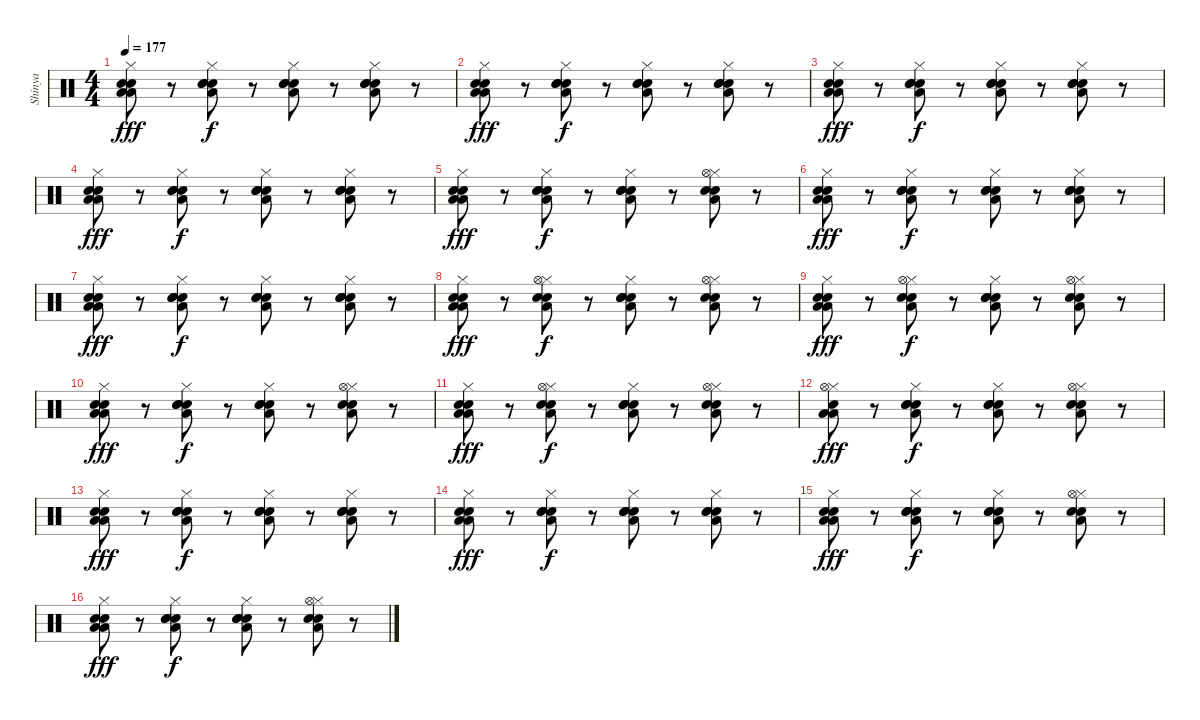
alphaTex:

\track ("Shinya " "Shinya ") {instrument percussion}
\staff {score}
\articulation defaults
\ts (4 4)
\tempo 177
\clef neutral
\ks c
("Hi-Hat (closed)" "Electric Snare (hit)" "Low Tom (hit)" "Electric Snare (hit)" "Low Tom (hit)").8{dy fff} r.8 ("Hi-Hat (closed)" "Electric Snare (hit)" "Low Tom (hit)" "Electric Snare (hit)" "Snare (hit) 2").8{dy f} r.8 ("Hi-Hat (closed)" "Electric Snare (hit)" "Electric Snare (hit)" "Snare (hit) 2" "Low Tom (hit)").8 r.8 ("Hi-Hat (closed)" "Electric Snare (hit)" "Electric Snare (hit)" "Electric Snare (hit)" "Low Tom (hit)").8 r.8 |
("Hi-Hat (closed)" "Electric Snare (hit)" "Low Tom (hit)" "Electric Snare (hit)" "Low Tom (hit)").8{dy fff} r.8 ("Hi-Hat (closed)" "Electric Snare (hit)" "Low Tom (hit)" "Electric Snare (hit)" "Snare (hit) 2").8{dy f} r.8 ("Hi-Hat (closed)" "Electric Snare (hit)" "Electric Snare (hit)" "Snare (hit) 2" "Low Tom (hit)").8 r.8 ("Hi-Hat (closed)" "Electric Snare (hit)" "Electric Snare (hit)" "Low Tom (hit)" "Electric Snare (hit)").8 r.8 |
("Hi-Hat (closed)" "Electric Snare (hit)" "Low Tom (hit)" "Electric Snare (hit)" "Low Tom (hit)").8{dy fff} r.8 ("Hi-Hat (closed)" "Electric Snare (hit)" "Low Tom (hit)" "Electric Snare (hit)" "Snare (hit) 2").8{dy f} r.8 ("Hi-Hat (closed)" "Electric Snare (hit)" "Electric Snare (hit)" "Snare (hit) 2" "Low Tom (hit)").8 r.8 ("Hi-Hat (closed)" "Electric Snare (hit)" "Electric Snare (hit)" "Electric Snare (hit)" "Low Tom (hit)").8 r.8 |
("Hi-Hat (closed)" "Electric Snare (hit)" "Low Tom (hit)" "Electric Snare (hit)" "Low Tom (hit)").8{dy fff} r.8 ("Hi-Hat (closed)" "Electric Snare (hit)" "Low Tom (hit)" "Electric Snare (hit)" "Snare (hit) 2").8{dy f} r.8 ("Hi-Hat (closed)" "Electric Snare (hit)" "Electric Snare (hit)" "Snare (hit) 2" "Low Tom (hit)").8 r.8 ("Hi-Hat (closed)" "Electric Snare (hit)" "Electric Snare (hit)" "Low Tom (hit)" "Electric Snare (hit)").8 r.8 |
("Hi-Hat (closed)" "Electric Snare (hit)" "Low Tom (hit)" "Electric Snare (hit)" "Low Tom (hit)").8{dy fff} r.8 ("Hi-Hat (closed)" "Electric Snare (hit)" "Low Tom (hit)" "Electric Snare (hit)" "Snare (hit) 2").8{dy f} r.8 ("Hi-Hat (closed)" "Electric Snare (hit)" "Electric Snare (hit)" "Snare (hit) 2" "Low Tom (hit)").8 r.8 ("Hi-Hat (closed)" "Hi-Hat (open)" "Electric Snare (hit)" "Electric Snare (hit)" "Low Tom (hit)").8 r.8 |
("Hi-Hat (closed)" "Electric Snare (hit)" "Low Tom (hit)" "Electric Snare (hit)" "Low Tom (hit)").8{dy fff} r.8 ("Hi-Hat (closed)" "Electric Snare (hit)" "Low Tom (hit)" "Electric Snare (hit)" "Snare (hit) 2").8{dy f} r.8 ("Hi-Hat (closed)" "Electric Snare (hit)" "Electric Snare (hit)" "Snare (hit) 2" "Low Tom (hit)").8 r.8 ("Hi-Hat (closed)" "Electric Snare (hit)" "Electric Snare (hit)" "Electric Snare (hit)" "Low Tom (hit)").8 r.8 |
("Hi-Hat (closed)" "Electric Snare (hit)" "Low Tom (hit)" "Electric Snare (hit)" "Low Tom (hit)").8{dy fff} r.8 ("Hi-Hat (closed)" "Electric Snare (hit)" "Low Tom (hit)" "Electric Snare (hit)" "Snare (hit) 2").8{dy f} r.8 ("Hi-Hat (closed)" "Electric Snare (hit)" "Electric Snare (hit)" "Snare (hit) 2" "Low Tom (hit)").8 r.8 ("Hi-Hat (closed)" "Electric Snare (hit)" "Electric Snare (hit)" "Low Tom (hit)" "Electric Snare (hit)").8 r.8 |
("Hi-Hat (closed)" "Electric Snare (hit)" "Low Tom (hit)" "Electric Snare (hit)" "Low Tom (hit)").8{dy fff} r.8 ("Hi-Hat (closed)" "Hi-Hat (open)" "Low Tom (hit)" "Electric Snare (hit)" "Snare (hit) 2").8{dy f} r.8 ("Hi-Hat (closed)" "Electric Snare (hit)" "Electric Snare (hit)" "Snare (hit) 2" "Low Tom (hit)").8 r.8 ("Hi-Hat (closed)" "Hi-Hat (open)" "Electric Snare (hit)" "Electric Snare (hit)" "Low Tom (hit)").8 r.8 |
("Hi-Hat (closed)" "Electric Snare (hit)" "Low Tom (hit)" "Electric Snare (hit)" "Low Tom (hit)").8{dy fff} r.8 ("Hi-Hat (closed)" "Hi-Hat (open)" "Low Tom (hit)" "Electric Snare (hit)" "Snare (hit) 2").8{dy f} r.8 ("Hi-Hat (closed)" "Electric Snare (hit)" "Electric Snare (hit)" "Snare (hit) 2" "Low Tom (hit)").8 r.8 ("Hi-Hat (closed)" "Hi-Hat (open)" "Electric Snare (hit)" "Low Tom (hit)" "Electric Snare (hit)").8 r.8 |
("Hi-Hat (closed)" "Electric Snare (hit)" "Low Tom (hit)" "Electric Snare (hit)" "Low Tom (hit)").8{dy fff} r.8 ("Hi-Hat (closed)" "Electric Snare (hit)" "Low Tom (hit)" "Electric Snare (hit)" "Snare (hit) 2").8{dy f} r.8 ("Hi-Hat (closed)" "Electric Snare (hit)" "Electric Snare (hit)" "Snare (hit) 2" "Low Tom (hit)").8 r.8 ("Hi-Hat (closed)" "Hi-Hat (open)" "Electric Snare (hit)" "Electric Snare (hit)" "Low Tom (hit)").8 r.8 |
("Hi-Hat (closed)" "Electric Snare (hit)" "Low Tom (hit)" "Electric Snare (hit)" "Low Tom (hit)").8{dy fff} r.8 ("Hi-Hat (closed)" "Hi-Hat (open)" "Low Tom (hit)" "Electric Snare (hit)" "Snare (hit) 2").8{dy f} r.8 ("Hi-Hat (closed)" "Electric Snare (hit)" "Electric Snare (hit)" "Snare (hit) 2" "Low Tom (hit)").8 r.8 ("Hi-Hat (closed)" "Hi-Hat (open)" "Electric Snare (hit)" "Electric Snare (hit)" "Low Tom (hit)").8 r.8 |
("Hi-Hat (closed)" "Hi-Hat (open)" "Low Tom (hit)" "Electric Snare (hit)" "Low Tom (hit)").8{dy fff} r.8 ("Hi-Hat (closed)" "Electric Snare (hit)" "Low Tom (hit)" "Electric Snare (hit)" "Snare (hit) 2").8{dy f} r.8 ("Hi-Hat (closed)" "Electric Snare (hit)" "Electric Snare (hit)" "Snare (hit) 2" "Low Tom (hit)").8 r.8 ("Hi-Hat (closed)" "Hi-Hat (open)" "Electric Snare (hit)" "Low Tom (hit)" "Electric Snare (hit)").8 r.8 |
("Hi-Hat (closed)" "Electric Snare (hit)" "Low Tom (hit)" "Electric Snare (hit)" "Low Tom (hit)").8{dy fff} r.8 ("Hi-Hat (closed)" "Electric Snare (hit)" "Low Tom (hit)" "Electric Snare (hit)" "Snare (hit) 2").8{dy f} r.8 ("Hi-Hat (closed)" "Electric Snare (hit)" "Electric Snare (hit)" "Snare (hit) 2" "Low Tom (hit)").8 r.8 ("Hi-Hat (closed)" "Electric Snare (hit)" "Electric Snare (hit)" "Electric Snare (hit)" "Low Tom (hit)").8 r.8 |
("Hi-Hat (closed)" "Electric Snare (hit)" "Low Tom (hit)" "Electric Snare (hit)" "Low Tom (hit)").8{dy fff} r.8 ("Hi-Hat (closed)" "Electric Snare (hit)" "Low Tom (hit)" "Electric Snare (hit)" "Snare (hit) 2").8{dy f} r.8 ("Hi-Hat (closed)" "Electric Snare (hit)" "Electric Snare (hit)" "Snare (hit) 2" "Low Tom (hit)").8 r.8 ("Hi-Hat (closed)" "Electric Snare (hit)" "Electric Snare (hit)" "Low Tom (hit)" "Electric Snare (hit)").8 r.8 |
("Hi-Hat (closed)" "Electric Snare (hit)" "Low Tom (hit)" "Electric Snare (hit)" "Low Tom (hit)").8{dy fff} r.8 ("Hi-Hat (closed)" "Electric Snare (hit)" "Low Tom (hit)" "Electric Snare (hit)" "Snare (hit) 2").8{dy f} r.8 ("Hi-Hat (closed)" "Electric Snare (hit)" "Electric Snare (hit)" "Snare (hit) 2" "Low Tom (hit)").8 r.8 ("Hi-Hat (closed)" "Hi-Hat (open)" "Electric Snare (hit)" "Electric Snare (hit)" "Low Tom (hit)").8 r.8 |
("Hi-Hat (closed)" "Electric Snare (hit)" "Low Tom (hit)" "Electric Snare (hit)" "Low Tom (hit)").8{dy fff} r.8 ("Hi-Hat (closed)" "Electric Snare (hit)" "Low Tom (hit)" "Electric Snare (hit)" "Snare (hit) 2").8{dy f} r.8 ("Hi-Hat (closed)" "Electric Snare (hit)" "Electric Snare (hit)" "Snare (hit) 2" "Low Tom (hit)").8 r.8 ("Hi-Hat (closed)" "Hi-Hat (open)" "Electric Snare (hit)" "Electric Snare (hit)" "Low Tom (hit)").8 r.8
